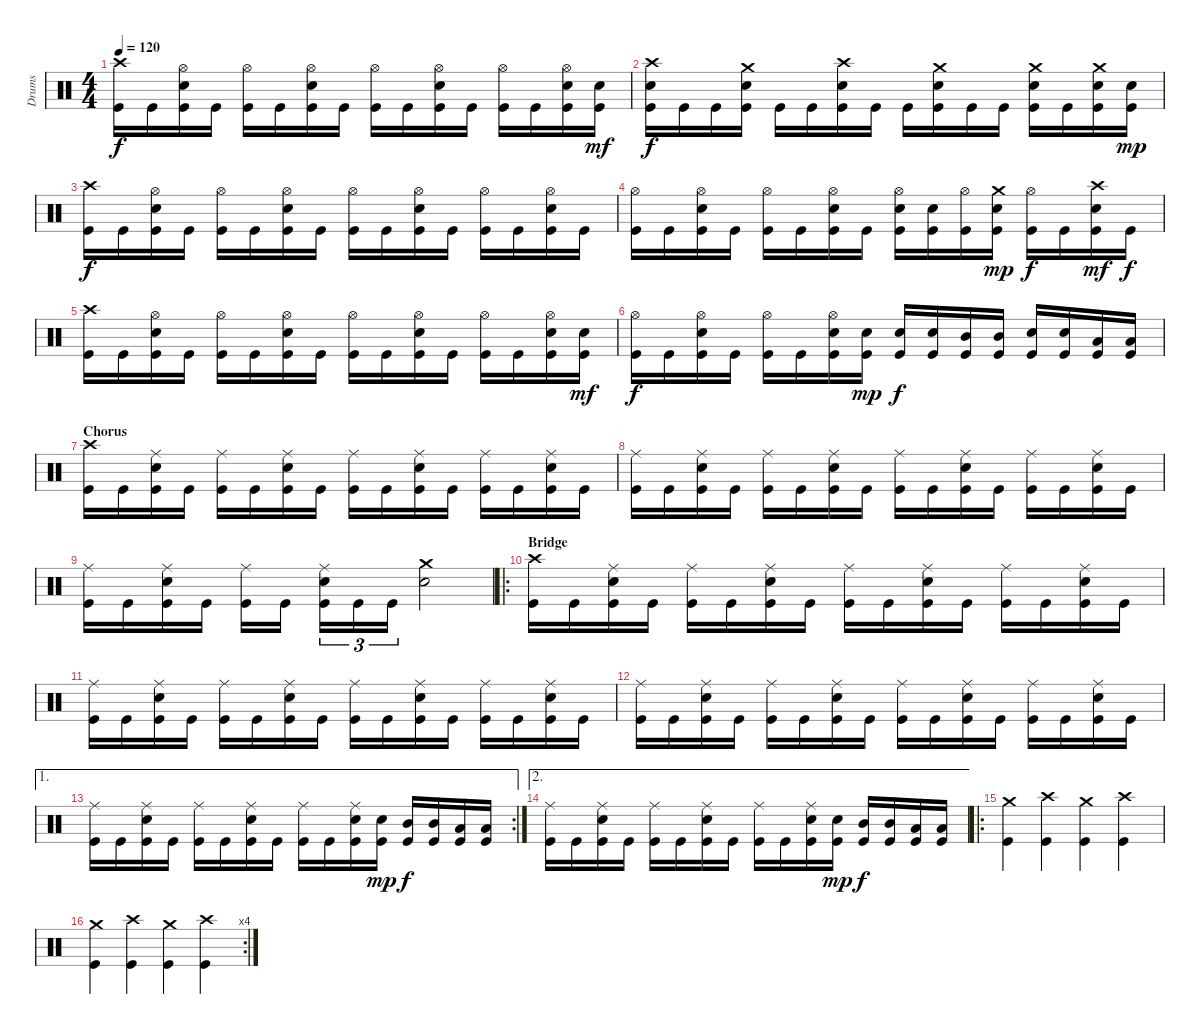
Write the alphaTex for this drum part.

\track ("Drums" "Drums") {instrument percussion}
\staff {score}
\articulation defaults
\ts (4 4)
\tempo 120
\clef neutral
\ks c
("Crash high (hit)" "Kick (hit)").16{dy f} "Kick (hit)".16 ("Hi-Hat (open)" "Electric Snare (hit)" "Kick (hit)").16 "Kick (hit)".16 ("Hi-Hat (open)" "Kick (hit)").16 "Kick (hit)".16 ("Hi-Hat (open)" "Electric Snare (hit)" "Kick (hit)").16 "Kick (hit)".16 ("Hi-Hat (open)" "Kick (hit)").16 "Kick (hit)".16 ("Hi-Hat (open)" "Electric Snare (hit)" "Kick (hit)").16 "Kick (hit)".16 ("Hi-Hat (open)" "Kick (hit)").16 "Kick (hit)".16 ("Hi-Hat (open)" "Electric Snare (hit)" "Kick (hit)").16 ("Electric Snare (hit)" "Kick (hit)").16{dy mf} |
("Crash high (hit)" "Electric Snare (hit)" "Kick (hit)").16{dy f} "Kick (hit)".16 "Kick (hit)".16 ("Crash medium (hit)" "Electric Snare (hit)" "Kick (hit)").16 "Kick (hit)".16 "Kick (hit)".16 ("Crash high (hit)" "Electric Snare (hit)" "Kick (hit)").16 "Kick (hit)".16 "Kick (hit)".16 ("Crash medium (hit)" "Electric Snare (hit)" "Kick (hit)").16 "Kick (hit)".16 "Kick (hit)".16 ("Crash medium (hit)" "Electric Snare (hit)" "Kick (hit)").16 "Kick (hit)".16 ("Crash medium (hit)" "Electric Snare (hit)" "Kick (hit)").16 ("Electric Snare (hit)" "Kick (hit)").16{dy mp} |
("Crash high (hit)" "Kick (hit)").16{dy f} "Kick (hit)".16 ("Hi-Hat (open)" "Electric Snare (hit)" "Kick (hit)").16 "Kick (hit)".16 ("Hi-Hat (open)" "Kick (hit)").16 "Kick (hit)".16 ("Hi-Hat (open)" "Electric Snare (hit)" "Kick (hit)").16 "Kick (hit)".16 ("Hi-Hat (open)" "Kick (hit)").16 "Kick (hit)".16 ("Hi-Hat (open)" "Electric Snare (hit)" "Kick (hit)").16 "Kick (hit)".16 ("Hi-Hat (open)" "Kick (hit)").16 "Kick (hit)".16 ("Hi-Hat (open)" "Electric Snare (hit)" "Kick (hit)").16 "Kick (hit)".16 |
("Hi-Hat (open)" "Kick (hit)").16 "Kick (hit)".16 ("Hi-Hat (open)" "Electric Snare (hit)" "Kick (hit)").16 "Kick (hit)".16 ("Hi-Hat (open)" "Kick (hit)").16 "Kick (hit)".16 ("Hi-Hat (open)" "Electric Snare (hit)" "Kick (hit)").16 "Kick (hit)".16 ("Hi-Hat (open)" "Electric Snare (hit)" "Kick (hit)").16 ("Electric Snare (hit)" "Kick (hit)").16 ("Hi-Hat (open)" "Kick (hit)").16 ("Crash medium (hit)" "Electric Snare (hit)" "Kick (hit)").16{dy mp} ("Hi-Hat (open)" "Kick (hit)").16{dy f} "Kick (hit)".16 ("Crash high (hit)" "Electric Snare (hit)" "Kick (hit)").16{dy mf} "Kick (hit)".16{dy f} |
("Crash high (hit)" "Kick (hit)").16 "Kick (hit)".16 ("Hi-Hat (open)" "Electric Snare (hit)" "Kick (hit)").16 "Kick (hit)".16 ("Hi-Hat (open)" "Kick (hit)").16 "Kick (hit)".16 ("Hi-Hat (open)" "Electric Snare (hit)" "Kick (hit)").16 "Kick (hit)".16 ("Hi-Hat (open)" "Kick (hit)").16 "Kick (hit)".16 ("Hi-Hat (open)" "Electric Snare (hit)" "Kick (hit)").16 "Kick (hit)".16 ("Hi-Hat (open)" "Kick (hit)").16 "Kick (hit)".16 ("Hi-Hat (open)" "Electric Snare (hit)" "Kick (hit)").16 ("Electric Snare (hit)" "Kick (hit)").16{dy mf} |
("Hi-Hat (open)" "Kick (hit)").16{dy f} "Kick (hit)".16 ("Hi-Hat (open)" "Electric Snare (hit)" "Kick (hit)").16 "Kick (hit)".16 ("Hi-Hat (open)" "Kick (hit)").16 "Kick (hit)".16 ("Hi-Hat (open)" "Electric Snare (hit)" "Kick (hit)").16 ("Electric Snare (hit)" "Kick (hit)").16{dy mp} ("Electric Snare (hit)" "Kick (hit)").16{dy f} ("Electric Snare (hit)" "Kick (hit)").16 ("Mid Tom (hit)" "Kick (hit)").16 ("Mid Tom (hit)" "Kick (hit)").16 ("Electric Snare (hit)" "Kick (hit)").16 ("Electric Snare (hit)" "Kick (hit)").16 ("Low Tom (hit)" "Kick (hit)").16 ("Low Tom (hit)" "Kick (hit)").16 |
\section ("" "Chorus")
("Crash high (hit)" "Kick (hit)").16 "Kick (hit)".16 ("Ride (middle)" "Electric Snare (hit)" "Kick (hit)").16 "Kick (hit)".16 ("Ride (middle)" "Kick (hit)").16 "Kick (hit)".16 ("Ride (middle)" "Electric Snare (hit)" "Kick (hit)").16 "Kick (hit)".16 ("Ride (middle)" "Kick (hit)").16 "Kick (hit)".16 ("Ride (middle)" "Electric Snare (hit)" "Kick (hit)").16 "Kick (hit)".16 ("Ride (middle)" "Kick (hit)").16 "Kick (hit)".16 ("Ride (middle)" "Electric Snare (hit)" "Kick (hit)").16 "Kick (hit)".16 |
("Ride (middle)" "Kick (hit)").16 "Kick (hit)".16 ("Ride (middle)" "Electric Snare (hit)" "Kick (hit)").16 "Kick (hit)".16 ("Ride (middle)" "Kick (hit)").16 "Kick (hit)".16 ("Ride (middle)" "Electric Snare (hit)" "Kick (hit)").16 "Kick (hit)".16 ("Ride (middle)" "Kick (hit)").16 "Kick (hit)".16 ("Ride (middle)" "Electric Snare (hit)" "Kick (hit)").16 "Kick (hit)".16 ("Ride (middle)" "Kick (hit)").16 "Kick (hit)".16 ("Ride (middle)" "Electric Snare (hit)" "Kick (hit)").16 "Kick (hit)".16 |
("Ride (middle)" "Kick (hit)").16 "Kick (hit)".16 ("Ride (middle)" "Electric Snare (hit)" "Kick (hit)").16 "Kick (hit)".16 ("Ride (middle)" "Kick (hit)").16 "Kick (hit)".16 ("Ride (middle)" "Electric Snare (hit)" "Kick (hit)").16{tu (3 2)} "Kick (hit)".16{tu (3 2)} "Kick (hit)".16{tu (3 2)} ("Crash medium (hit)" "Electric Snare (hit)").2 |
\ro
\section ("" "Bridge")
("Crash high (hit)" "Kick (hit)").16 "Kick (hit)".16 ("Ride (middle)" "Electric Snare (hit)" "Kick (hit)").16 "Kick (hit)".16 ("Ride (middle)" "Kick (hit)").16 "Kick (hit)".16 ("Ride (middle)" "Electric Snare (hit)" "Kick (hit)").16 "Kick (hit)".16 ("Ride (middle)" "Kick (hit)").16 "Kick (hit)".16 ("Ride (middle)" "Electric Snare (hit)" "Kick (hit)").16 "Kick (hit)".16 ("Ride (middle)" "Kick (hit)").16 "Kick (hit)".16 ("Ride (middle)" "Electric Snare (hit)" "Kick (hit)").16 "Kick (hit)".16 |
("Ride (middle)" "Kick (hit)").16 "Kick (hit)".16 ("Ride (middle)" "Electric Snare (hit)" "Kick (hit)").16 "Kick (hit)".16 ("Ride (middle)" "Kick (hit)").16 "Kick (hit)".16 ("Ride (middle)" "Electric Snare (hit)" "Kick (hit)").16 "Kick (hit)".16 ("Ride (middle)" "Kick (hit)").16 "Kick (hit)".16 ("Ride (middle)" "Electric Snare (hit)" "Kick (hit)").16 "Kick (hit)".16 ("Ride (middle)" "Kick (hit)").16 "Kick (hit)".16 ("Ride (middle)" "Electric Snare (hit)" "Kick (hit)").16 "Kick (hit)".16 |
("Ride (middle)" "Kick (hit)").16 "Kick (hit)".16 ("Ride (middle)" "Electric Snare (hit)" "Kick (hit)").16 "Kick (hit)".16 ("Ride (middle)" "Kick (hit)").16 "Kick (hit)".16 ("Ride (middle)" "Electric Snare (hit)" "Kick (hit)").16 "Kick (hit)".16 ("Ride (middle)" "Kick (hit)").16 "Kick (hit)".16 ("Ride (middle)" "Electric Snare (hit)" "Kick (hit)").16 "Kick (hit)".16 ("Ride (middle)" "Kick (hit)").16 "Kick (hit)".16 ("Ride (middle)" "Electric Snare (hit)" "Kick (hit)").16 "Kick (hit)".16 |
\ae 1
\rc 2
("Ride (middle)" "Kick (hit)").16 "Kick (hit)".16 ("Ride (middle)" "Electric Snare (hit)" "Kick (hit)").16 "Kick (hit)".16 ("Ride (middle)" "Kick (hit)").16 "Kick (hit)".16 ("Ride (middle)" "Electric Snare (hit)" "Kick (hit)").16 "Kick (hit)".16 ("Ride (middle)" "Kick (hit)").16 "Kick (hit)".16 ("Ride (middle)" "Electric Snare (hit)" "Kick (hit)").16 ("Electric Snare (hit)" "Kick (hit)").16{dy mp} ("Mid Tom (hit)" "Kick (hit)").16{dy f} ("Mid Tom (hit)" "Kick (hit)").16 ("Low Tom (hit)" "Kick (hit)").16 ("Low Tom (hit)" "Kick (hit)").16 |
\ae 2
("Ride (middle)" "Kick (hit)").16 "Kick (hit)".16 ("Ride (middle)" "Electric Snare (hit)" "Kick (hit)").16 "Kick (hit)".16 ("Ride (middle)" "Kick (hit)").16 "Kick (hit)".16 ("Ride (middle)" "Electric Snare (hit)" "Kick (hit)").16 "Kick (hit)".16 ("Ride (middle)" "Kick (hit)").16 "Kick (hit)".16 ("Ride (middle)" "Electric Snare (hit)" "Kick (hit)").16 ("Electric Snare (hit)" "Kick (hit)").16{dy mp} ("Mid Tom (hit)" "Kick (hit)").16{dy f} ("Mid Tom (hit)" "Kick (hit)").16 ("Low Tom (hit)" "Kick (hit)").16 ("Low Tom (hit)" "Kick (hit)").16 |
\ro
("Crash medium (hit)" "Kick (hit)").4 ("Crash high (hit)" "Kick (hit)").4 ("Crash medium (hit)" "Kick (hit)").4 ("Crash high (hit)" "Kick (hit)").4 |
\rc 4
("Crash medium (hit)" "Kick (hit)").4 ("Crash high (hit)" "Kick (hit)").4 ("Crash medium (hit)" "Kick (hit)").4 ("Crash high (hit)" "Kick (hit)").4
